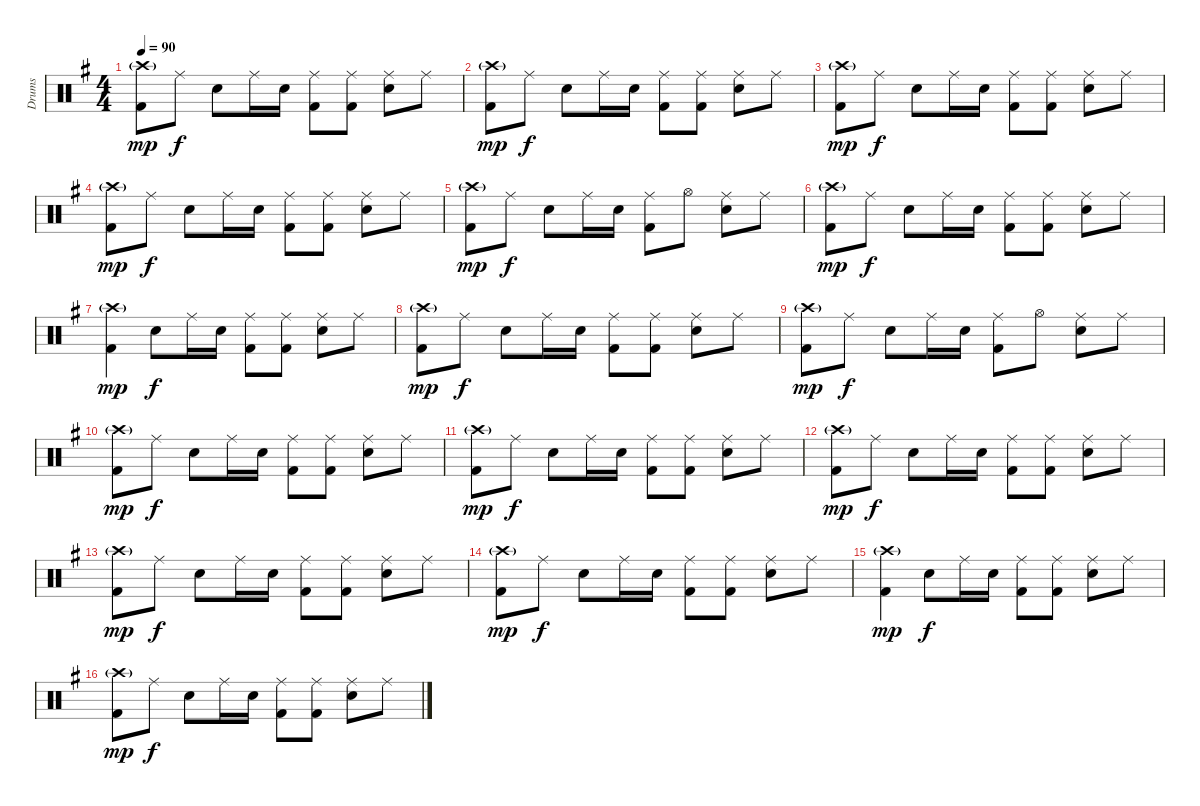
\track ("Drums" "Drums") {instrument percussion}
\staff {score}
\articulation defaults
\ts (4 4)
\tempo 90
\clef neutral
\ks g
("Crash high (hit)"{g} "Kick (hit) 2").8{dy mp} "Ride (middle)".8{dy f} "Snare (hit) 2".8 "Ride (middle)".16 "Snare (hit) 2".16 ("Ride (middle)" "Kick (hit) 2").8 ("Ride (middle)" "Kick (hit) 2").8 ("Ride (middle)" "Snare (hit) 2").8 "Ride (middle)".8 |
("Crash high (hit)"{g} "Kick (hit) 2").8{dy mp} "Ride (middle)".8{dy f} "Snare (hit) 2".8 "Ride (middle)".16 "Snare (hit) 2".16 ("Ride (middle)" "Kick (hit) 2").8 ("Ride (middle)" "Kick (hit) 2").8 ("Ride (middle)" "Snare (hit) 2").8 "Ride (middle)".8 |
("Crash high (hit)"{g} "Kick (hit) 2").8{dy mp} "Ride (middle)".8{dy f} "Snare (hit) 2".8 "Ride (middle)".16 "Snare (hit) 2".16 ("Ride (middle)" "Kick (hit) 2").8 ("Ride (middle)" "Kick (hit) 2").8 ("Ride (middle)" "Snare (hit) 2").8 "Ride (middle)".8 |
("Crash high (hit)"{g} "Kick (hit) 2").8{dy mp} "Ride (middle)".8{dy f} "Snare (hit) 2".8 "Ride (middle)".16 "Snare (hit) 2".16 ("Ride (middle)" "Kick (hit) 2").8 ("Ride (middle)" "Kick (hit) 2").8 ("Ride (middle)" "Snare (hit) 2").8 "Ride (middle)".8 |
("Crash high (hit)"{g} "Kick (hit) 2").8{dy mp} "Ride (middle)".8{dy f} "Snare (hit) 2".8 "Ride (middle)".16 "Snare (hit) 2".16 ("Ride (middle)" "Kick (hit) 2").8 "Hi-Hat (open)".8 ("Ride (middle)" "Snare (hit) 2").8 "Ride (middle)".8 |
("Crash high (hit)"{g} "Kick (hit) 2").8{dy mp} "Ride (middle)".8{dy f} "Snare (hit) 2".8 "Ride (middle)".16 "Snare (hit) 2".16 ("Ride (middle)" "Kick (hit) 2").8 ("Ride (middle)" "Kick (hit) 2").8 ("Ride (middle)" "Snare (hit) 2").8 "Ride (middle)".8 |
("Crash high (hit)"{g} "Kick (hit) 2").4{dy mp} "Snare (hit) 2".8{dy f} "Ride (middle)".16 "Snare (hit) 2".16 ("Ride (middle)" "Kick (hit) 2").8 ("Ride (middle)" "Kick (hit) 2").8 ("Ride (middle)" "Snare (hit) 2").8 "Ride (middle)".8 |
("Crash high (hit)"{g} "Kick (hit) 2").8{dy mp} "Ride (middle)".8{dy f} "Snare (hit) 2".8 "Ride (middle)".16 "Snare (hit) 2".16 ("Ride (middle)" "Kick (hit) 2").8 ("Ride (middle)" "Kick (hit) 2").8 ("Ride (middle)" "Snare (hit) 2").8 "Ride (middle)".8 |
("Crash high (hit)"{g} "Kick (hit) 2").8{dy mp} "Ride (middle)".8{dy f} "Snare (hit) 2".8 "Ride (middle)".16 "Snare (hit) 2".16 ("Ride (middle)" "Kick (hit) 2").8 "Hi-Hat (open)".8 ("Ride (middle)" "Snare (hit) 2").8 "Ride (middle)".8 |
("Crash high (hit)"{g} "Kick (hit) 2").8{dy mp} "Ride (middle)".8{dy f} "Snare (hit) 2".8 "Ride (middle)".16 "Snare (hit) 2".16 ("Ride (middle)" "Kick (hit) 2").8 ("Ride (middle)" "Kick (hit) 2").8 ("Ride (middle)" "Snare (hit) 2").8 "Ride (middle)".8 |
("Crash high (hit)"{g} "Kick (hit) 2").8{dy mp} "Ride (middle)".8{dy f} "Snare (hit) 2".8 "Ride (middle)".16 "Snare (hit) 2".16 ("Ride (middle)" "Kick (hit) 2").8 ("Ride (middle)" "Kick (hit) 2").8 ("Ride (middle)" "Snare (hit) 2").8 "Ride (middle)".8 |
("Crash high (hit)"{g} "Kick (hit) 2").8{dy mp} "Ride (middle)".8{dy f} "Snare (hit) 2".8 "Ride (middle)".16 "Snare (hit) 2".16 ("Ride (middle)" "Kick (hit) 2").8 ("Ride (middle)" "Kick (hit) 2").8 ("Ride (middle)" "Snare (hit) 2").8 "Ride (middle)".8 |
("Crash high (hit)"{g} "Kick (hit) 2").8{dy mp} "Ride (middle)".8{dy f} "Snare (hit) 2".8 "Ride (middle)".16 "Snare (hit) 2".16 ("Ride (middle)" "Kick (hit) 2").8 ("Ride (middle)" "Kick (hit) 2").8 ("Ride (middle)" "Snare (hit) 2").8 "Ride (middle)".8 |
("Crash high (hit)"{g} "Kick (hit) 2").8{dy mp} "Ride (middle)".8{dy f} "Snare (hit) 2".8 "Ride (middle)".16 "Snare (hit) 2".16 ("Ride (middle)" "Kick (hit) 2").8 ("Ride (middle)" "Kick (hit) 2").8 ("Ride (middle)" "Snare (hit) 2").8 "Ride (middle)".8 |
("Crash high (hit)"{g} "Kick (hit) 2").4{dy mp} "Snare (hit) 2".8{dy f} "Ride (middle)".16 "Snare (hit) 2".16 ("Ride (middle)" "Kick (hit) 2").8 ("Ride (middle)" "Kick (hit) 2").8 ("Ride (middle)" "Snare (hit) 2").8 "Ride (middle)".8 |
("Crash high (hit)"{g} "Kick (hit) 2").8{dy mp} "Ride (middle)".8{dy f} "Snare (hit) 2".8 "Ride (middle)".16 "Snare (hit) 2".16 ("Ride (middle)" "Kick (hit) 2").8 ("Ride (middle)" "Kick (hit) 2").8 ("Ride (middle)" "Snare (hit) 2").8 "Ride (middle)".8
